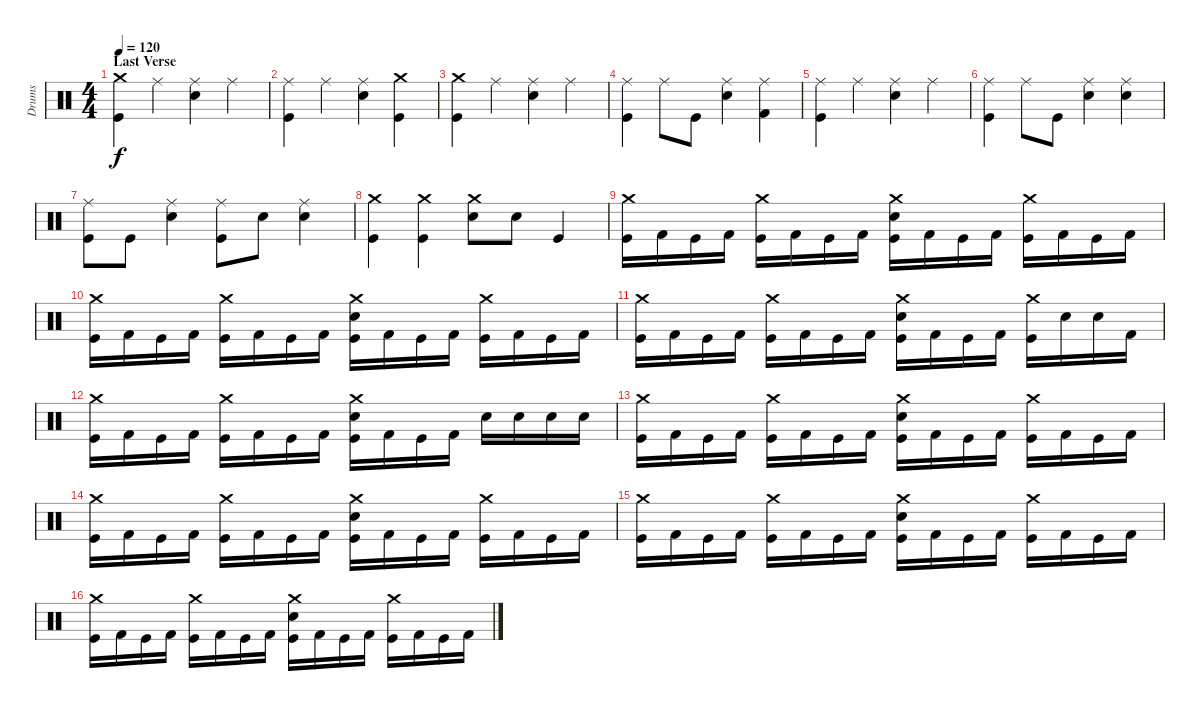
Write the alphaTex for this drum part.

\track ("Drums" "Drums") {instrument percussion}
\staff {score}
\articulation defaults
\ts (4 4)
\section ("" "Last Verse")
\tempo 120
\clef neutral
\ks c
("Crash medium (hit)" "Kick (hit)").4{dy f} "Ride (middle)".4 ("Ride (middle)" "Electric Snare (hit)").4 "Ride (middle)".4 |
("Ride (middle)" "Kick (hit)").4 "Ride (middle)".4 ("Ride (middle)" "Electric Snare (hit)").4 ("Crash medium (hit)" "Kick (hit)").4 |
("Crash medium (hit)" "Kick (hit)").4 "Ride (middle)".4 ("Ride (middle)" "Electric Snare (hit)").4 "Ride (middle)".4 |
("Ride (middle)" "Kick (hit)").4 "Ride (middle)".8 "Kick (hit)".8 ("Ride (middle)" "Electric Snare (hit)").4 ("Ride (middle)" "Kick (hit) 2").4 |
("Ride (middle)" "Kick (hit)").4 "Ride (middle)".4 ("Ride (middle)" "Electric Snare (hit)").4 "Ride (middle)".4 |
("Ride (middle)" "Kick (hit)").4 "Ride (middle)".8 "Kick (hit)".8 ("Ride (middle)" "Electric Snare (hit)").4 ("Ride (middle)" "Electric Snare (hit)").4 |
("Ride (middle)" "Kick (hit)").8 "Kick (hit)".8 ("Ride (middle)" "Electric Snare (hit)").4 ("Ride (middle)" "Kick (hit)").8 "Electric Snare (hit)".8 ("Ride (middle)" "Electric Snare (hit)").4 |
("Crash medium (hit)" "Kick (hit)").4 ("Crash medium (hit)" "Kick (hit)").4 ("Crash medium (hit)" "Electric Snare (hit)").8 "Electric Snare (hit)".8 "Kick (hit)".4 |
("Crash medium (hit)" "Kick (hit)").16 "Kick (hit) 2".16 "Kick (hit)".16 "Kick (hit) 2".16 ("Crash medium (hit)" "Kick (hit)").16 "Kick (hit) 2".16 "Kick (hit)".16 "Kick (hit) 2".16 ("Crash medium (hit)" "Electric Snare (hit)" "Kick (hit)").16 "Kick (hit) 2".16 "Kick (hit)".16 "Kick (hit) 2".16 ("Crash medium (hit)" "Kick (hit)").16 "Kick (hit) 2".16 "Kick (hit)".16 "Kick (hit) 2".16 |
("Crash medium (hit)" "Kick (hit)").16 "Kick (hit) 2".16 "Kick (hit)".16 "Kick (hit) 2".16 ("Crash medium (hit)" "Kick (hit)").16 "Kick (hit) 2".16 "Kick (hit)".16 "Kick (hit) 2".16 ("Crash medium (hit)" "Electric Snare (hit)" "Kick (hit)").16 "Kick (hit) 2".16 "Kick (hit)".16 "Kick (hit) 2".16 ("Crash medium (hit)" "Kick (hit)").16 "Kick (hit) 2".16 "Kick (hit)".16 "Kick (hit) 2".16 |
("Crash medium (hit)" "Kick (hit)").16 "Kick (hit) 2".16 "Kick (hit)".16 "Kick (hit) 2".16 ("Crash medium (hit)" "Kick (hit)").16 "Kick (hit) 2".16 "Kick (hit)".16 "Kick (hit) 2".16 ("Crash medium (hit)" "Electric Snare (hit)" "Kick (hit)").16 "Kick (hit) 2".16 "Kick (hit)".16 "Kick (hit) 2".16 ("Crash medium (hit)" "Kick (hit)").16 "Electric Snare (hit)".16 "Electric Snare (hit)".16 "Kick (hit) 2".16 |
("Crash medium (hit)" "Kick (hit)").16 "Kick (hit) 2".16 "Kick (hit)".16 "Kick (hit) 2".16 ("Crash medium (hit)" "Kick (hit)").16 "Kick (hit) 2".16 "Kick (hit)".16 "Kick (hit) 2".16 ("Crash medium (hit)" "Electric Snare (hit)" "Kick (hit)").16 "Kick (hit) 2".16 "Kick (hit)".16 "Kick (hit) 2".16 "Electric Snare (hit)".16 "Electric Snare (hit)".16 "Electric Snare (hit)".16 "Electric Snare (hit)".16 |
("Crash medium (hit)" "Kick (hit)").16 "Kick (hit) 2".16 "Kick (hit)".16 "Kick (hit) 2".16 ("Crash medium (hit)" "Kick (hit)").16 "Kick (hit) 2".16 "Kick (hit)".16 "Kick (hit) 2".16 ("Crash medium (hit)" "Electric Snare (hit)" "Kick (hit)").16 "Kick (hit) 2".16 "Kick (hit)".16 "Kick (hit) 2".16 ("Crash medium (hit)" "Kick (hit)").16 "Kick (hit) 2".16 "Kick (hit)".16 "Kick (hit) 2".16 |
("Crash medium (hit)" "Kick (hit)").16 "Kick (hit) 2".16 "Kick (hit)".16 "Kick (hit) 2".16 ("Crash medium (hit)" "Kick (hit)").16 "Kick (hit) 2".16 "Kick (hit)".16 "Kick (hit) 2".16 ("Crash medium (hit)" "Electric Snare (hit)" "Kick (hit)").16 "Kick (hit) 2".16 "Kick (hit)".16 "Kick (hit) 2".16 ("Crash medium (hit)" "Kick (hit)").16 "Kick (hit) 2".16 "Kick (hit)".16 "Kick (hit) 2".16 |
("Crash medium (hit)" "Kick (hit)").16 "Kick (hit) 2".16 "Kick (hit)".16 "Kick (hit) 2".16 ("Crash medium (hit)" "Kick (hit)").16 "Kick (hit) 2".16 "Kick (hit)".16 "Kick (hit) 2".16 ("Crash medium (hit)" "Electric Snare (hit)" "Kick (hit)").16 "Kick (hit) 2".16 "Kick (hit)".16 "Kick (hit) 2".16 ("Crash medium (hit)" "Kick (hit)").16 "Kick (hit) 2".16 "Kick (hit)".16 "Kick (hit) 2".16 |
("Crash medium (hit)" "Kick (hit)").16 "Kick (hit) 2".16 "Kick (hit)".16 "Kick (hit) 2".16 ("Crash medium (hit)" "Kick (hit)").16 "Kick (hit) 2".16 "Kick (hit)".16 "Kick (hit) 2".16 ("Crash medium (hit)" "Electric Snare (hit)" "Kick (hit)").16 "Kick (hit) 2".16 "Kick (hit)".16 "Kick (hit) 2".16 ("Crash medium (hit)" "Kick (hit)").16 "Kick (hit) 2".16 "Kick (hit)".16 "Kick (hit) 2".16
